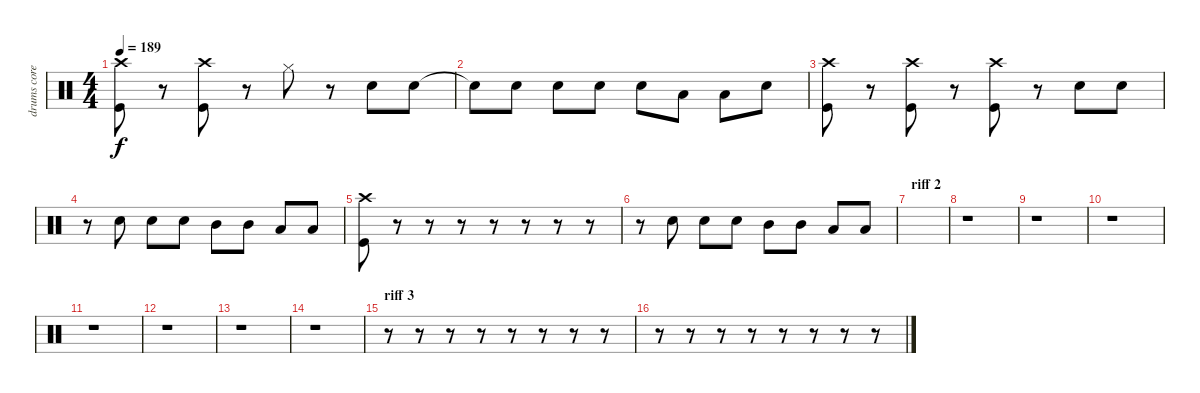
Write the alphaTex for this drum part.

\track ("drums core" "drums core") {instrument percussion}
\staff {score}
\articulation defaults
\ts (4 4)
\tempo 189
\clef neutral
\ks c
("Crash high (hit)" "Kick (hit)").8{dy f} r.8 ("Crash high (hit)" "Kick (hit)").8 r.8 "Hi-Hat (closed)".8 r.8 "Electric Snare (hit)".8 "Electric Snare (hit)".8 |
"Snare (hit)"{t}.8 "Electric Snare (hit)".8 "Electric Snare (hit)".8 "Electric Snare (hit)".8 "Electric Snare (hit)".8 "Low Tom (hit)".8 "Low Tom (hit)".8 "Electric Snare (hit)".8 |
("Crash high (hit)" "Kick (hit)").8 r.8 ("Crash high (hit)" "Kick (hit)").8 r.8 ("Crash high (hit)" "Kick (hit)").8 r.8 "Electric Snare (hit)".8 "Electric Snare (hit)".8 |
r.8 "Electric Snare (hit)".8 "Electric Snare (hit)".8 "Electric Snare (hit)".8 "Mid Tom (hit)".8 "Mid Tom (hit)".8 "Low Tom (hit)".8 "Low Tom (hit)".8 |
("Crash high (hit)" "Kick (hit)").8 r.8 r.8 r.8 r.8 r.8 r.8 r.8 |
r.8 "Electric Snare (hit)".8 "Electric Snare (hit)".8 "Electric Snare (hit)".8 "Mid Tom (hit)".8 "Mid Tom (hit)".8 "Low Tom (hit)".8 "Low Tom (hit)".8 |
\section ("" "riff 2")
|
r.1 |
r.1 |
r.1 |
r.1 |
r.1 |
r.1 |
r.1 |
\section ("" "riff 3")
r.8 r.8 r.8 r.8 r.8 r.8 r.8 r.8 |
r.8 r.8 r.8 r.8 r.8 r.8 r.8 r.8
